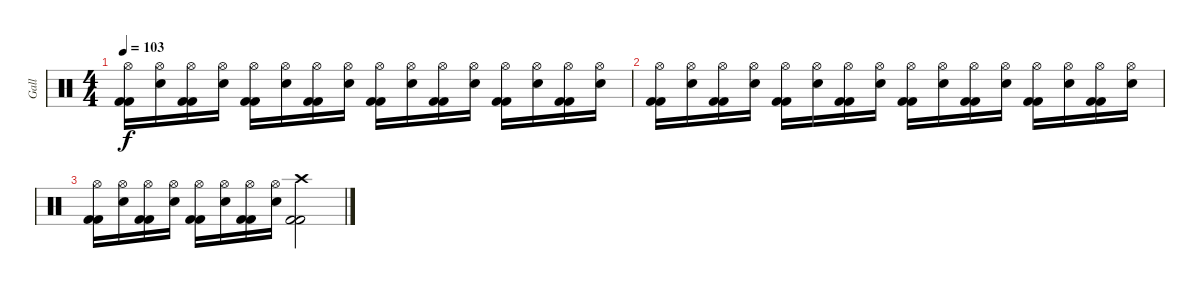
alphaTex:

\track ("Gall" "Gall") {instrument percussion}
\staff {score}
\articulation defaults
\ts (4 4)
\tempo 103
\clef neutral
\ks c
("Kick (hit) 2" "Kick (hit) 2" "Hi-Hat (open)").16{dy f} ("Snare (hit) 2" "Hi-Hat (open)").16 ("Kick (hit) 2" "Kick (hit) 2" "Hi-Hat (open)").16 ("Snare (hit) 2" "Hi-Hat (open)").16 ("Kick (hit) 2" "Kick (hit) 2" "Hi-Hat (open)").16 ("Snare (hit) 2" "Hi-Hat (open)").16 ("Kick (hit) 2" "Kick (hit) 2" "Hi-Hat (open)").16 ("Snare (hit) 2" "Hi-Hat (open)").16 ("Kick (hit) 2" "Kick (hit) 2" "Hi-Hat (open)").16 ("Snare (hit) 2" "Hi-Hat (open)").16 ("Kick (hit) 2" "Kick (hit) 2" "Hi-Hat (open)").16 ("Snare (hit) 2" "Hi-Hat (open)").16 ("Kick (hit) 2" "Kick (hit) 2" "Hi-Hat (open)").16 ("Snare (hit) 2" "Hi-Hat (open)").16 ("Kick (hit) 2" "Kick (hit) 2" "Hi-Hat (open)").16 ("Snare (hit) 2" "Hi-Hat (open)").16 |
("Kick (hit) 2" "Kick (hit) 2" "Hi-Hat (open)").16 ("Snare (hit) 2" "Hi-Hat (open)").16 ("Kick (hit) 2" "Kick (hit) 2" "Hi-Hat (open)").16 ("Snare (hit) 2" "Hi-Hat (open)").16 ("Kick (hit) 2" "Kick (hit) 2" "Hi-Hat (open)").16 ("Snare (hit) 2" "Hi-Hat (open)").16 ("Kick (hit) 2" "Kick (hit) 2" "Hi-Hat (open)").16 ("Snare (hit) 2" "Hi-Hat (open)").16 ("Kick (hit) 2" "Kick (hit) 2" "Hi-Hat (open)").16 ("Snare (hit) 2" "Hi-Hat (open)").16 ("Kick (hit) 2" "Kick (hit) 2" "Hi-Hat (open)").16 ("Snare (hit) 2" "Hi-Hat (open)").16 ("Kick (hit) 2" "Kick (hit) 2" "Hi-Hat (open)").16 ("Snare (hit) 2" "Hi-Hat (open)").16 ("Kick (hit) 2" "Kick (hit) 2" "Hi-Hat (open)").16 ("Snare (hit) 2" "Hi-Hat (open)").16 |
("Kick (hit) 2" "Kick (hit) 2" "Hi-Hat (open)").16 ("Snare (hit) 2" "Hi-Hat (open)").16 ("Kick (hit) 2" "Kick (hit) 2" "Hi-Hat (open)").16 ("Snare (hit) 2" "Hi-Hat (open)").16 ("Kick (hit) 2" "Kick (hit) 2" "Hi-Hat (open)").16 ("Snare (hit) 2" "Hi-Hat (open)").16 ("Kick (hit) 2" "Kick (hit) 2" "Hi-Hat (open)").16 ("Snare (hit) 2" "Hi-Hat (open)").16 ("Kick (hit) 2" "Kick (hit) 2" "Crash high (hit)").2
